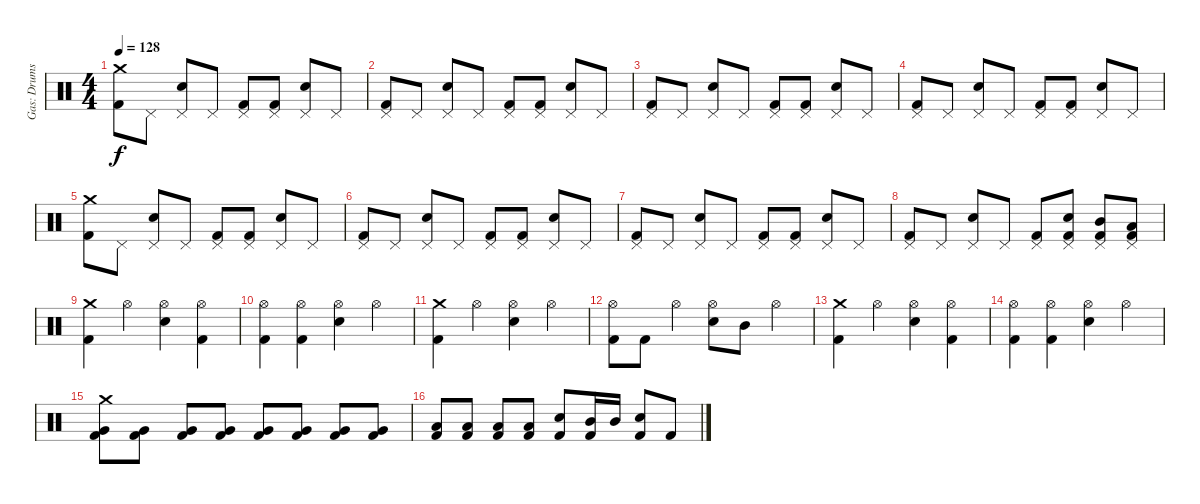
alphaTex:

\track ("Gas: Drums" "Gas: Drums") {instrument percussion}
\staff {score}
\articulation defaults
\ts (4 4)
\tempo 128
\clef neutral
\ks c
("Crash medium (hit)" "Kick (hit) 2").8{dy f} "Pedal Hi-Hat (hit)".8 ("Pedal Hi-Hat (hit)" "Electric Snare (hit)").8 "Pedal Hi-Hat (hit)".8 ("Pedal Hi-Hat (hit)" "Kick (hit) 2").8 ("Pedal Hi-Hat (hit)" "Kick (hit) 2").8 ("Pedal Hi-Hat (hit)" "Electric Snare (hit)").8 "Pedal Hi-Hat (hit)".8 |
("Pedal Hi-Hat (hit)" "Kick (hit) 2").8 "Pedal Hi-Hat (hit)".8 ("Pedal Hi-Hat (hit)" "Electric Snare (hit)").8 "Pedal Hi-Hat (hit)".8 ("Pedal Hi-Hat (hit)" "Kick (hit) 2").8 ("Pedal Hi-Hat (hit)" "Kick (hit) 2").8 ("Pedal Hi-Hat (hit)" "Electric Snare (hit)").8 "Pedal Hi-Hat (hit)".8 |
("Pedal Hi-Hat (hit)" "Kick (hit) 2").8 "Pedal Hi-Hat (hit)".8 ("Pedal Hi-Hat (hit)" "Electric Snare (hit)").8 "Pedal Hi-Hat (hit)".8 ("Pedal Hi-Hat (hit)" "Kick (hit) 2").8 ("Pedal Hi-Hat (hit)" "Kick (hit) 2").8 ("Pedal Hi-Hat (hit)" "Electric Snare (hit)").8 "Pedal Hi-Hat (hit)".8 |
("Pedal Hi-Hat (hit)" "Kick (hit) 2").8 "Pedal Hi-Hat (hit)".8 ("Pedal Hi-Hat (hit)" "Electric Snare (hit)").8 "Pedal Hi-Hat (hit)".8 ("Pedal Hi-Hat (hit)" "Kick (hit) 2").8 ("Pedal Hi-Hat (hit)" "Kick (hit) 2").8 ("Pedal Hi-Hat (hit)" "Electric Snare (hit)").8 "Pedal Hi-Hat (hit)".8 |
("Crash medium (hit)" "Kick (hit) 2").8 "Pedal Hi-Hat (hit)".8 ("Pedal Hi-Hat (hit)" "Electric Snare (hit)").8 "Pedal Hi-Hat (hit)".8 ("Pedal Hi-Hat (hit)" "Kick (hit) 2").8 ("Pedal Hi-Hat (hit)" "Kick (hit) 2").8 ("Pedal Hi-Hat (hit)" "Electric Snare (hit)").8 "Pedal Hi-Hat (hit)".8 |
("Pedal Hi-Hat (hit)" "Kick (hit) 2").8 "Pedal Hi-Hat (hit)".8 ("Pedal Hi-Hat (hit)" "Electric Snare (hit)").8 "Pedal Hi-Hat (hit)".8 ("Pedal Hi-Hat (hit)" "Kick (hit) 2").8 ("Pedal Hi-Hat (hit)" "Kick (hit) 2").8 ("Pedal Hi-Hat (hit)" "Electric Snare (hit)").8 "Pedal Hi-Hat (hit)".8 |
("Pedal Hi-Hat (hit)" "Kick (hit) 2").8 "Pedal Hi-Hat (hit)".8 ("Pedal Hi-Hat (hit)" "Electric Snare (hit)").8 "Pedal Hi-Hat (hit)".8 ("Pedal Hi-Hat (hit)" "Kick (hit) 2").8 ("Pedal Hi-Hat (hit)" "Kick (hit) 2").8 ("Pedal Hi-Hat (hit)" "Electric Snare (hit)").8 "Pedal Hi-Hat (hit)".8 |
("Pedal Hi-Hat (hit)" "Kick (hit) 2").8 "Pedal Hi-Hat (hit)".8 ("Pedal Hi-Hat (hit)" "Electric Snare (hit)").8 "Pedal Hi-Hat (hit)".8 ("Pedal Hi-Hat (hit)" "Kick (hit) 2").8 ("Pedal Hi-Hat (hit)" "Electric Snare (hit)" "Kick (hit) 2").8 ("Pedal Hi-Hat (hit)" "Mid Tom (hit)" "Kick (hit) 2").8 ("Pedal Hi-Hat (hit)" "Low Tom (hit)" "Kick (hit) 2").8 |
("Crash medium (hit)" "Kick (hit) 2").4 "Hi-Hat (open)".4 ("Hi-Hat (open)" "Electric Snare (hit)").4 ("Hi-Hat (open)" "Kick (hit) 2").4 |
("Hi-Hat (open)" "Kick (hit) 2").4 ("Hi-Hat (open)" "Kick (hit) 2").4 ("Hi-Hat (open)" "Electric Snare (hit)").4 "Hi-Hat (open)".4 |
("Crash medium (hit)" "Kick (hit) 2").4 "Hi-Hat (open)".4 ("Hi-Hat (open)" "Electric Snare (hit)").4 "Hi-Hat (open)".4 |
("Hi-Hat (open)" "Kick (hit) 2").8 "Kick (hit) 2".8 "Hi-Hat (open)".4 ("Hi-Hat (open)" "Electric Snare (hit)").8 "Mid Tom (hit)".8 "Hi-Hat (open)".4 |
("Crash medium (hit)" "Kick (hit) 2").4 "Hi-Hat (open)".4 ("Hi-Hat (open)" "Electric Snare (hit)").4 ("Hi-Hat (open)" "Kick (hit) 2").4 |
("Hi-Hat (open)" "Kick (hit) 2").4 ("Hi-Hat (open)" "Kick (hit) 2").4 ("Hi-Hat (open)" "Electric Snare (hit)").4 "Hi-Hat (open)".4 |
("Crash medium (hit)" "Very Low Tom (hit)" "Kick (hit) 2").8 ("Very Low Tom (hit)" "Kick (hit) 2").8 ("Very Low Tom (hit)" "Kick (hit) 2").8 ("Very Low Tom (hit)" "Kick (hit) 2").8 ("Very Low Tom (hit)" "Kick (hit) 2").8 ("Very Low Tom (hit)" "Kick (hit) 2").8 ("Very Low Tom (hit)" "Kick (hit) 2").8 ("Very Low Tom (hit)" "Kick (hit) 2").8 |
("Low Tom (hit)" "Kick (hit) 2").8 ("Low Tom (hit)" "Kick (hit) 2").8 ("Low Tom (hit)" "Kick (hit) 2").8 ("Low Tom (hit)" "Kick (hit) 2").8 ("Electric Snare (hit)" "Kick (hit) 2").8 ("Mid Tom (hit)" "Kick (hit) 2").16 "Mid Tom (hit)".16 ("Electric Snare (hit)" "Kick (hit) 2").8 "Kick (hit) 2".8
